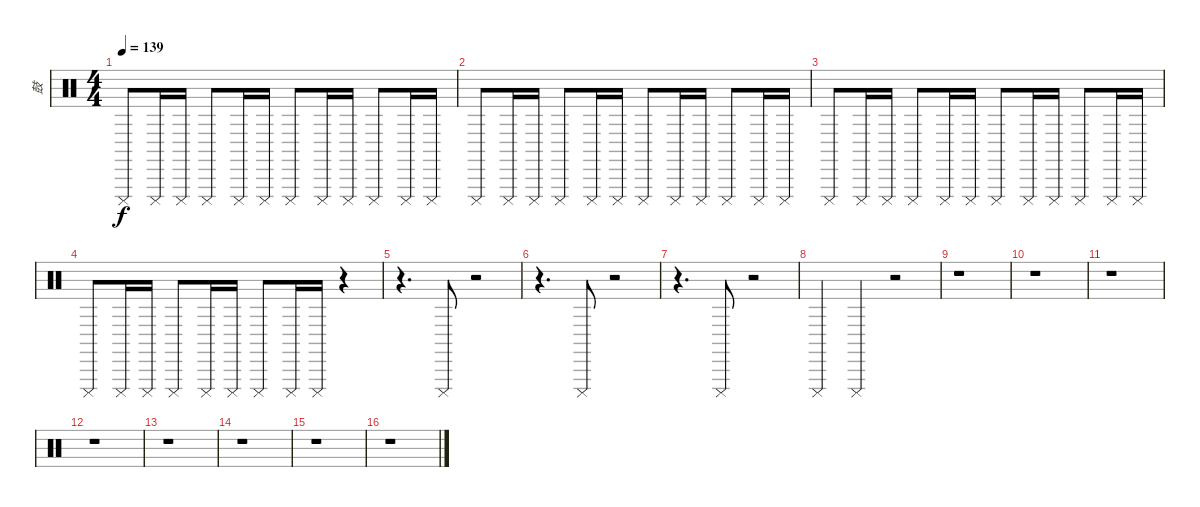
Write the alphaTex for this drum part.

\track ("鼓" "鼓") {instrument percussion}
\staff {score}
\articulation defaults
\ts (4 4)
\tempo 139
\clef neutral
\ks c "Cuica (mute)".8{dy f} "Cuica (mute)".16 "Cuica (mute)".16 "Cuica (mute)".8 "Cuica (mute)".16 "Cuica (mute)".16 "Cuica (mute)".8 "Cuica (mute)".16 "Cuica (mute)".16 "Cuica (mute)".8 "Cuica (mute)".16 "Cuica (mute)".16
|
"Cuica (mute)".8 "Cuica (mute)".16 "Cuica (mute)".16 "Cuica (mute)".8 "Cuica (mute)".16 "Cuica (mute)".16 "Cuica (mute)".8 "Cuica (mute)".16 "Cuica (mute)".16 "Cuica (mute)".8 "Cuica (mute)".16 "Cuica (mute)".16 |
"Cuica (mute)".8 "Cuica (mute)".16 "Cuica (mute)".16 "Cuica (mute)".8 "Cuica (mute)".16 "Cuica (mute)".16 "Cuica (mute)".8 "Cuica (mute)".16 "Cuica (mute)".16 "Cuica (mute)".8 "Cuica (mute)".16 "Cuica (mute)".16 |
"Cuica (mute)".8 "Cuica (mute)".16 "Cuica (mute)".16 "Cuica (mute)".8 "Cuica (mute)".16 "Cuica (mute)".16 "Cuica (mute)".8 "Cuica (mute)".16 "Cuica (mute)".16 r.4 |
r.4{d} "Cuica (mute)".8 r.2 |
r.4{d} "Cuica (mute)".8 r.2 |
r.4{d} "Cuica (mute)".8 r.2 |
"Cuica (mute)".4 "Cuica (mute)".4 r.2 |
r.1 |
r.1 |
r.1 |
r.1 |
r.1 |
r.1 |
r.1 |
r.1
